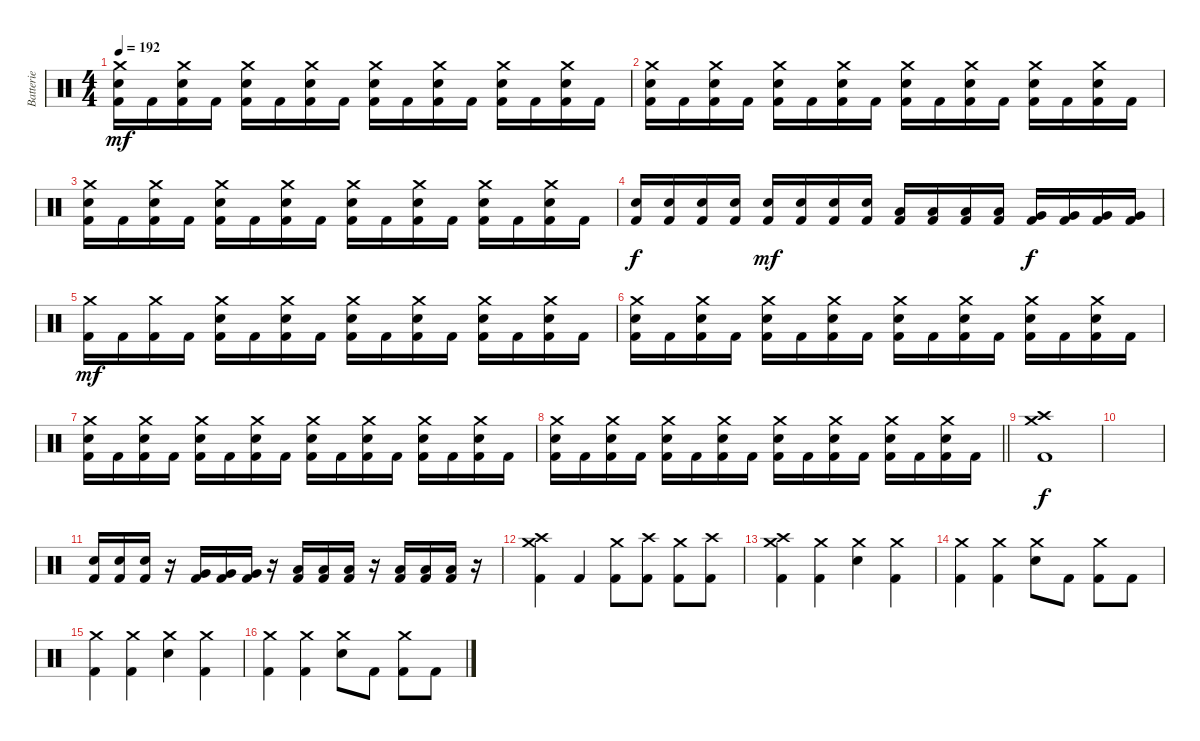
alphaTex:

\track ("Batterie" "Batterie") {instrument percussion}
\staff {score}
\articulation defaults
\ts (4 4)
\tempo 192
\clef neutral
\ks c
("Crash medium (hit)" "Snare (hit) 2" "Kick (hit) 2").16{dy mf} "Kick (hit) 2".16 ("Crash medium (hit)" "Snare (hit) 2" "Kick (hit) 2").16 "Kick (hit) 2".16 ("Crash medium (hit)" "Snare (hit) 2" "Kick (hit) 2").16 "Kick (hit) 2".16 ("Crash medium (hit)" "Snare (hit) 2" "Kick (hit) 2").16 "Kick (hit) 2".16 ("Crash medium (hit)" "Snare (hit) 2" "Kick (hit) 2").16 "Kick (hit) 2".16 ("Crash medium (hit)" "Snare (hit) 2" "Kick (hit) 2").16 "Kick (hit) 2".16 ("Crash medium (hit)" "Snare (hit) 2" "Kick (hit) 2").16 "Kick (hit) 2".16 ("Crash medium (hit)" "Snare (hit) 2" "Kick (hit) 2").16 "Kick (hit) 2".16 |
("Crash medium (hit)" "Snare (hit) 2" "Kick (hit) 2").16 "Kick (hit) 2".16 ("Crash medium (hit)" "Snare (hit) 2" "Kick (hit) 2").16 "Kick (hit) 2".16 ("Crash medium (hit)" "Snare (hit) 2" "Kick (hit) 2").16 "Kick (hit) 2".16 ("Crash medium (hit)" "Snare (hit) 2" "Kick (hit) 2").16 "Kick (hit) 2".16 ("Crash medium (hit)" "Snare (hit) 2" "Kick (hit) 2").16 "Kick (hit) 2".16 ("Crash medium (hit)" "Snare (hit) 2" "Kick (hit) 2").16 "Kick (hit) 2".16 ("Crash medium (hit)" "Snare (hit) 2" "Kick (hit) 2").16 "Kick (hit) 2".16 ("Crash medium (hit)" "Snare (hit) 2" "Kick (hit) 2").16 "Kick (hit) 2".16 |
("Crash medium (hit)" "Snare (hit) 2" "Kick (hit) 2").16 "Kick (hit) 2".16 ("Crash medium (hit)" "Snare (hit) 2" "Kick (hit) 2").16 "Kick (hit) 2".16 ("Crash medium (hit)" "Snare (hit) 2" "Kick (hit) 2").16 "Kick (hit) 2".16 ("Crash medium (hit)" "Snare (hit) 2" "Kick (hit) 2").16 "Kick (hit) 2".16 ("Crash medium (hit)" "Snare (hit) 2" "Kick (hit) 2").16 "Kick (hit) 2".16 ("Crash medium (hit)" "Snare (hit) 2" "Kick (hit) 2").16 "Kick (hit) 2".16 ("Crash medium (hit)" "Snare (hit) 2" "Kick (hit) 2").16 "Kick (hit) 2".16 ("Crash medium (hit)" "Snare (hit) 2" "Kick (hit) 2").16 "Kick (hit) 2".16 |
("Snare (hit) 2" "Kick (hit) 2").16{dy f} ("Snare (hit) 2" "Kick (hit) 2").16 ("Snare (hit) 2" "Kick (hit) 2").16 ("Snare (hit) 2" "Kick (hit) 2").16 ("Snare (hit) 2" "Kick (hit) 2").16{dy mf} ("Snare (hit) 2" "Kick (hit) 2").16 ("Snare (hit) 2" "Kick (hit) 2").16 ("Snare (hit) 2" "Kick (hit) 2").16 ("Low Tom (hit)" "Kick (hit) 2").16 ("Low Tom (hit)" "Kick (hit) 2").16 ("Low Tom (hit)" "Kick (hit) 2").16 ("Low Tom (hit)" "Kick (hit) 2").16 ("Very Low Tom (hit)" "Kick (hit) 2").16{dy f} ("Very Low Tom (hit)" "Kick (hit) 2").16 ("Very Low Tom (hit)" "Kick (hit) 2").16 ("Very Low Tom (hit)" "Kick (hit) 2").16 |
("Crash medium (hit)" "Kick (hit) 2").16{dy mf} "Kick (hit) 2".16 ("Crash medium (hit)" "Kick (hit) 2").16 "Kick (hit) 2".16 ("Crash medium (hit)" "Snare (hit) 2" "Kick (hit) 2").16 "Kick (hit) 2".16 ("Crash medium (hit)" "Snare (hit) 2" "Kick (hit) 2").16 "Kick (hit) 2".16 ("Crash medium (hit)" "Snare (hit) 2" "Kick (hit) 2").16 "Kick (hit) 2".16 ("Crash medium (hit)" "Snare (hit) 2" "Kick (hit) 2").16 "Kick (hit) 2".16 ("Crash medium (hit)" "Snare (hit) 2" "Kick (hit) 2").16 "Kick (hit) 2".16 ("Crash medium (hit)" "Snare (hit) 2" "Kick (hit) 2").16 "Kick (hit) 2".16 |
("Crash medium (hit)" "Snare (hit) 2" "Kick (hit) 2").16 "Kick (hit) 2".16 ("Crash medium (hit)" "Snare (hit) 2" "Kick (hit) 2").16 "Kick (hit) 2".16 ("Crash medium (hit)" "Snare (hit) 2" "Kick (hit) 2").16 "Kick (hit) 2".16 ("Crash medium (hit)" "Snare (hit) 2" "Kick (hit) 2").16 "Kick (hit) 2".16 ("Crash medium (hit)" "Snare (hit) 2" "Kick (hit) 2").16 "Kick (hit) 2".16 ("Crash medium (hit)" "Snare (hit) 2" "Kick (hit) 2").16 "Kick (hit) 2".16 ("Crash medium (hit)" "Snare (hit) 2" "Kick (hit) 2").16 "Kick (hit) 2".16 ("Crash medium (hit)" "Snare (hit) 2" "Kick (hit) 2").16 "Kick (hit) 2".16 |
("Crash medium (hit)" "Snare (hit) 2" "Kick (hit) 2").16 "Kick (hit) 2".16 ("Crash medium (hit)" "Snare (hit) 2" "Kick (hit) 2").16 "Kick (hit) 2".16 ("Crash medium (hit)" "Snare (hit) 2" "Kick (hit) 2").16 "Kick (hit) 2".16 ("Crash medium (hit)" "Snare (hit) 2" "Kick (hit) 2").16 "Kick (hit) 2".16 ("Crash medium (hit)" "Snare (hit) 2" "Kick (hit) 2").16 "Kick (hit) 2".16 ("Crash medium (hit)" "Snare (hit) 2" "Kick (hit) 2").16 "Kick (hit) 2".16 ("Crash medium (hit)" "Snare (hit) 2" "Kick (hit) 2").16 "Kick (hit) 2".16 ("Crash medium (hit)" "Snare (hit) 2" "Kick (hit) 2").16 "Kick (hit) 2".16 |
\barLineRight lightlight
("Crash medium (hit)" "Snare (hit) 2" "Kick (hit) 2").16 "Kick (hit) 2".16 ("Crash medium (hit)" "Snare (hit) 2" "Kick (hit) 2").16 "Kick (hit) 2".16 ("Crash medium (hit)" "Snare (hit) 2" "Kick (hit) 2").16 "Kick (hit) 2".16 ("Crash medium (hit)" "Snare (hit) 2" "Kick (hit) 2").16 "Kick (hit) 2".16 ("Crash medium (hit)" "Snare (hit) 2" "Kick (hit) 2").16 "Kick (hit) 2".16 ("Crash medium (hit)" "Snare (hit) 2" "Kick (hit) 2").16 "Kick (hit) 2".16 ("Crash medium (hit)" "Snare (hit) 2" "Kick (hit) 2").16 "Kick (hit) 2".16 ("Crash medium (hit)" "Snare (hit) 2" "Kick (hit) 2").16 "Kick (hit) 2".16 |
\section ("" "")
("Crash medium (hit)" "Crash high (hit)" "Kick (hit) 2").1{dy f} |
|
("Snare (hit) 2" "Kick (hit) 2").16 ("Snare (hit) 2" "Kick (hit) 2").16 ("Snare (hit) 2" "Kick (hit) 2").16 r.16 ("Very Low Tom (hit)" "Kick (hit) 2").16 ("Very Low Tom (hit)" "Kick (hit) 2").16 ("Very Low Tom (hit)" "Kick (hit) 2").16 r.16 ("Low Tom (hit)" "Kick (hit) 2").16 ("Low Tom (hit)" "Kick (hit) 2").16 ("Low Tom (hit)" "Kick (hit) 2").16 r.16 ("Low Tom (hit)" "Kick (hit) 2").16 ("Low Tom (hit)" "Kick (hit) 2").16 ("Low Tom (hit)" "Kick (hit) 2").16 r.16 |
("Crash medium (hit)" "Crash high (hit)" "Kick (hit) 2").4 "Kick (hit) 2".4 ("Crash medium (hit)" "Kick (hit) 2").8 ("Crash high (hit)" "Kick (hit) 2").8 ("Crash medium (hit)" "Kick (hit) 2").8 ("Crash high (hit)" "Kick (hit) 2").8 |
("Crash medium (hit)" "Crash high (hit)" "Kick (hit) 2").4 ("Crash medium (hit)" "Kick (hit) 2").4 ("Crash medium (hit)" "Snare (hit) 2").4 ("Crash medium (hit)" "Kick (hit) 2").4 |
("Crash medium (hit)" "Kick (hit) 2").4 ("Crash medium (hit)" "Kick (hit) 2").4 ("Crash medium (hit)" "Snare (hit) 2").8 "Kick (hit) 2".8 ("Crash medium (hit)" "Kick (hit) 2").8 "Kick (hit) 2".8 |
("Crash medium (hit)" "Kick (hit) 2").4 ("Crash medium (hit)" "Kick (hit) 2").4 ("Crash medium (hit)" "Snare (hit) 2").4 ("Crash medium (hit)" "Kick (hit) 2").4 |
("Crash medium (hit)" "Kick (hit) 2").4 ("Crash medium (hit)" "Kick (hit) 2").4 ("Crash medium (hit)" "Snare (hit) 2").8 "Kick (hit) 2".8 ("Crash medium (hit)" "Kick (hit) 2").8 "Kick (hit) 2".8
